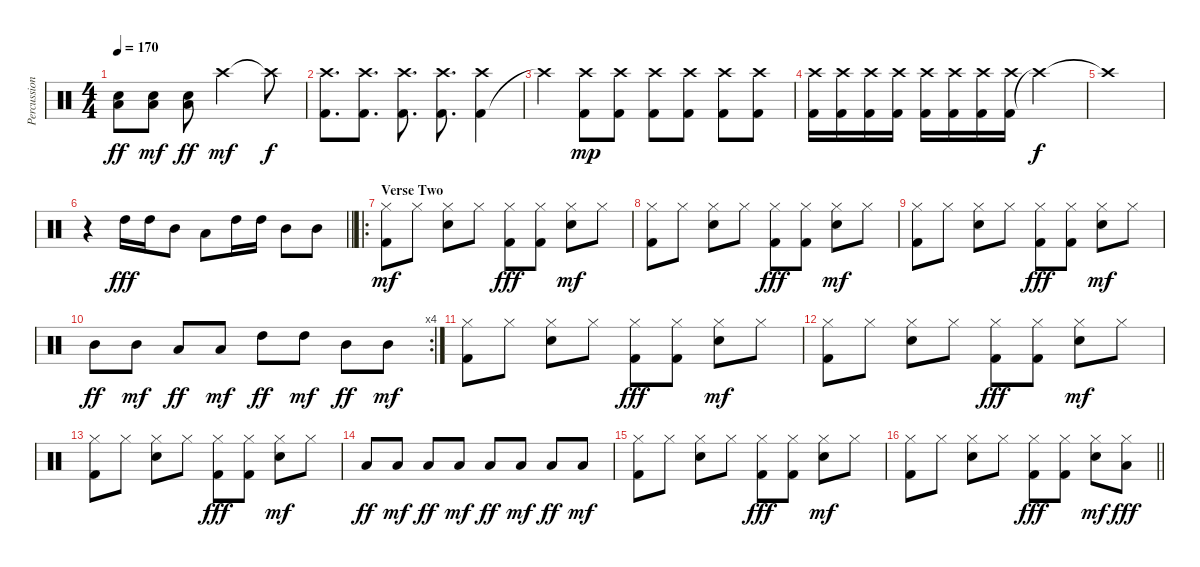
\track ("Percussion" "Percussion") {instrument percussion}
\staff {score}
\articulation defaults
\ts (4 4)
\tempo 170
\clef neutral
\ks c
("Electric Snare (hit)" "Low Tom (hit)").8{dy ff} ("Electric Snare (hit)" "Low Tom (hit)").8{dy mf} ("Electric Snare (hit)" "Low Tom (hit)").8{dy ff} "Crash high (hit)".2{dy mf} "Crash high (hit)"{t}.8{dy f} |
("Kick (hit) 2" "Crash high (hit)").8{d} ("Kick (hit) 2" "Crash high (hit)").8{d} ("Kick (hit) 2" "Crash high (hit)").8{d} ("Kick (hit) 2" "Crash high (hit)").8{d} ("Kick (hit) 2" "Crash high (hit)").4 |
"Crash high (hit)"{t}.4 ("Kick (hit) 2" "Crash high (hit)").8{dy mp} ("Kick (hit) 2" "Crash high (hit)").8 ("Kick (hit) 2" "Crash high (hit)").8 ("Kick (hit) 2" "Crash high (hit)").8 ("Kick (hit) 2" "Crash high (hit)").8 ("Kick (hit) 2" "Crash high (hit)").8 |
("Kick (hit) 2" "Crash high (hit)").16 ("Kick (hit) 2" "Crash high (hit)").16 ("Kick (hit) 2" "Crash high (hit)").16 ("Kick (hit) 2" "Crash high (hit)").16 ("Kick (hit) 2" "Crash high (hit)").16 ("Kick (hit) 2" "Crash high (hit)").16 ("Kick (hit) 2" "Crash high (hit)").16 ("Kick (hit) 2" "Crash high (hit)").16 "Crash high (hit)"{t}.2{dy f} |
"Crash high (hit)"{t}.1 |
\barLineRight lightlight
r.4 "High Tom (hit)".16{dy fff} "High Tom (hit)".16 "Mid Tom (hit)".8 "Low Tom (hit)".8 "High Tom (hit)".16 "High Tom (hit)".16 "Mid Tom (hit)".8 "Mid Tom (hit)".8 |
\ro
\section ("" "Verse Two")
("Kick (hit) 2" "Hi-Hat (closed)").8{dy mf} "Hi-Hat (closed)".8 ("Hi-Hat (closed)" "Electric Snare (hit)").8 "Hi-Hat (closed)".8 ("Hi-Hat (closed)" "Kick (hit) 2").8{dy fff} ("Hi-Hat (closed)" "Kick (hit) 2").8 ("Hi-Hat (closed)" "Electric Snare (hit)").8{dy mf} "Hi-Hat (closed)".8 |
("Kick (hit) 2" "Hi-Hat (closed)").8 "Hi-Hat (closed)".8 ("Hi-Hat (closed)" "Electric Snare (hit)").8 "Hi-Hat (closed)".8 ("Hi-Hat (closed)" "Kick (hit) 2").8{dy fff} ("Hi-Hat (closed)" "Kick (hit) 2").8 ("Hi-Hat (closed)" "Electric Snare (hit)").8{dy mf} "Hi-Hat (closed)".8 |
("Kick (hit) 2" "Hi-Hat (closed)").8 "Hi-Hat (closed)".8 ("Hi-Hat (closed)" "Electric Snare (hit)").8 "Hi-Hat (closed)".8 ("Hi-Hat (closed)" "Kick (hit) 2").8{dy fff} ("Hi-Hat (closed)" "Kick (hit) 2").8 ("Hi-Hat (closed)" "Electric Snare (hit)").8{dy mf} "Hi-Hat (closed)".8 |
\rc 4 "Mid Tom (hit)".8{dy ff} "Mid Tom (hit)".8{dy mf} "Low Tom (hit)".8{dy ff} "Low Tom (hit)".8{dy mf} "High Tom (hit)".8{dy ff} "High Tom (hit)".8{dy mf} "Mid Tom (hit)".8{dy ff} "Mid Tom (hit)".8{dy mf}
|
("Kick (hit) 2" "Hi-Hat (closed)").8 "Hi-Hat (closed)".8 ("Hi-Hat (closed)" "Electric Snare (hit)").8 "Hi-Hat (closed)".8 ("Hi-Hat (closed)" "Kick (hit) 2").8{dy fff} ("Hi-Hat (closed)" "Kick (hit) 2").8 ("Hi-Hat (closed)" "Electric Snare (hit)").8{dy mf} "Hi-Hat (closed)".8 |
("Kick (hit) 2" "Hi-Hat (closed)").8 "Hi-Hat (closed)".8 ("Hi-Hat (closed)" "Electric Snare (hit)").8 "Hi-Hat (closed)".8 ("Hi-Hat (closed)" "Kick (hit) 2").8{dy fff} ("Hi-Hat (closed)" "Kick (hit) 2").8 ("Hi-Hat (closed)" "Electric Snare (hit)").8{dy mf} "Hi-Hat (closed)".8 |
("Kick (hit) 2" "Hi-Hat (closed)").8 "Hi-Hat (closed)".8 ("Hi-Hat (closed)" "Electric Snare (hit)").8 "Hi-Hat (closed)".8 ("Hi-Hat (closed)" "Kick (hit) 2").8{dy fff} ("Hi-Hat (closed)" "Kick (hit) 2").8 ("Hi-Hat (closed)" "Electric Snare (hit)").8{dy mf} "Hi-Hat (closed)".8 |
"Low Tom (hit)".8{dy ff} "Low Tom (hit)".8{dy mf} "Low Tom (hit)".8{dy ff} "Low Tom (hit)".8{dy mf} "Low Tom (hit)".8{dy ff} "Low Tom (hit)".8{dy mf} "Low Tom (hit)".8{dy ff} "Low Tom (hit)".8{dy mf} |
("Kick (hit) 2" "Hi-Hat (closed)").8 "Hi-Hat (closed)".8 ("Hi-Hat (closed)" "Electric Snare (hit)").8 "Hi-Hat (closed)".8 ("Hi-Hat (closed)" "Kick (hit) 2").8{dy fff} ("Hi-Hat (closed)" "Kick (hit) 2").8 ("Hi-Hat (closed)" "Electric Snare (hit)").8{dy mf} "Hi-Hat (closed)".8 |
\barLineRight lightlight
("Kick (hit) 2" "Hi-Hat (closed)").8 "Hi-Hat (closed)".8 ("Hi-Hat (closed)" "Electric Snare (hit)").8 "Hi-Hat (closed)".8 ("Hi-Hat (closed)" "Kick (hit) 2").8{dy fff} ("Hi-Hat (closed)" "Kick (hit) 2").8 ("Hi-Hat (closed)" "Electric Snare (hit)").8{dy mf} ("Hi-Hat (closed)" "Low Tom (hit)").8{dy fff}
